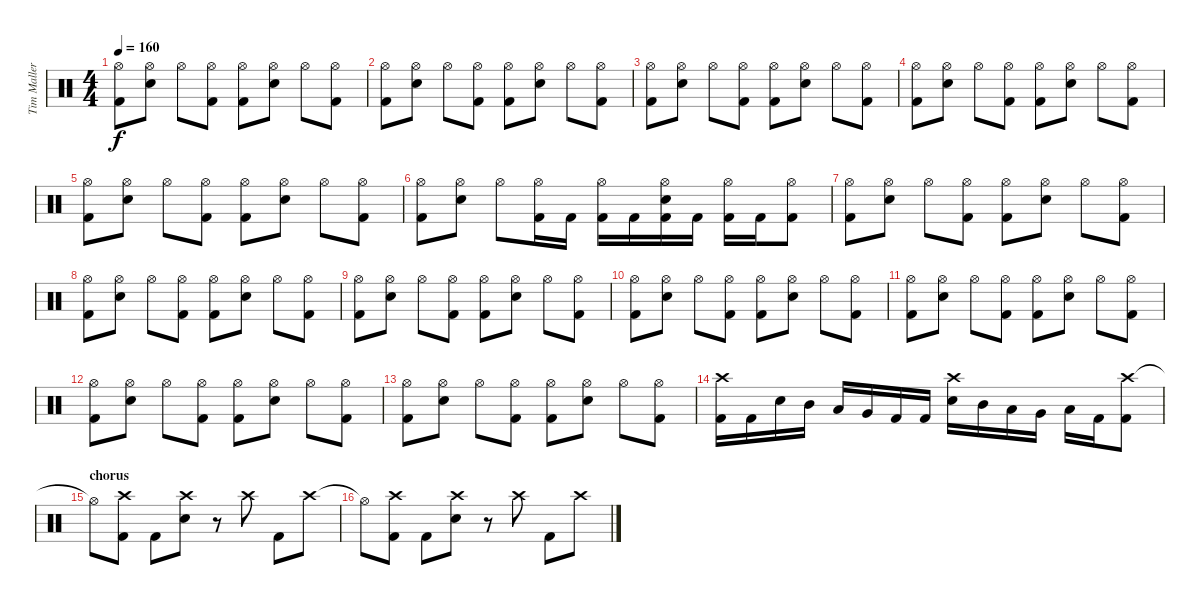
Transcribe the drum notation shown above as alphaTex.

\track ("Tim Mallere" "Tim Maller") {instrument percussion}
\staff {score}
\articulation defaults
\ts (4 4)
\tempo 160
\clef neutral
\ks c
("Hi-Hat (open)" "Kick (hit) 2").8{dy f} ("Hi-Hat (open)" "Electric Snare (hit)").8 "Hi-Hat (open)".8 ("Hi-Hat (open)" "Kick (hit) 2").8 ("Hi-Hat (open)" "Kick (hit) 2").8 ("Hi-Hat (open)" "Electric Snare (hit)").8 "Hi-Hat (open)".8 ("Hi-Hat (open)" "Kick (hit) 2").8 |
("Hi-Hat (open)" "Kick (hit) 2").8 ("Hi-Hat (open)" "Electric Snare (hit)").8 "Hi-Hat (open)".8 ("Hi-Hat (open)" "Kick (hit) 2").8 ("Hi-Hat (open)" "Kick (hit) 2").8 ("Hi-Hat (open)" "Electric Snare (hit)").8 "Hi-Hat (open)".8 ("Hi-Hat (open)" "Kick (hit) 2").8 |
("Hi-Hat (open)" "Kick (hit) 2").8 ("Hi-Hat (open)" "Electric Snare (hit)").8 "Hi-Hat (open)".8 ("Hi-Hat (open)" "Kick (hit) 2").8 ("Hi-Hat (open)" "Kick (hit) 2").8 ("Hi-Hat (open)" "Electric Snare (hit)").8 "Hi-Hat (open)".8 ("Hi-Hat (open)" "Kick (hit) 2").8 |
("Hi-Hat (open)" "Kick (hit) 2").8 ("Hi-Hat (open)" "Electric Snare (hit)").8 "Hi-Hat (open)".8 ("Hi-Hat (open)" "Kick (hit) 2").8 ("Hi-Hat (open)" "Kick (hit) 2").8 ("Hi-Hat (open)" "Electric Snare (hit)").8 "Hi-Hat (open)".8 ("Hi-Hat (open)" "Kick (hit) 2").8 |
("Hi-Hat (open)" "Kick (hit) 2").8 ("Hi-Hat (open)" "Electric Snare (hit)").8 "Hi-Hat (open)".8 ("Hi-Hat (open)" "Kick (hit) 2").8 ("Hi-Hat (open)" "Kick (hit) 2").8 ("Hi-Hat (open)" "Electric Snare (hit)").8 "Hi-Hat (open)".8 ("Hi-Hat (open)" "Kick (hit) 2").8 |
("Hi-Hat (open)" "Kick (hit) 2").8 ("Hi-Hat (open)" "Electric Snare (hit)").8 "Hi-Hat (open)".8 ("Hi-Hat (open)" "Kick (hit) 2").16 "Kick (hit) 2".16 ("Hi-Hat (open)" "Kick (hit) 2").16 "Kick (hit) 2".16 ("Hi-Hat (open)" "Electric Snare (hit)" "Kick (hit) 2").16 "Kick (hit) 2".16 ("Hi-Hat (open)" "Kick (hit) 2").16 "Kick (hit) 2".16 ("Hi-Hat (open)" "Kick (hit) 2").8 |
("Hi-Hat (open)" "Kick (hit) 2").8 ("Hi-Hat (open)" "Electric Snare (hit)").8 "Hi-Hat (open)".8 ("Hi-Hat (open)" "Kick (hit) 2").8 ("Hi-Hat (open)" "Kick (hit) 2").8 ("Hi-Hat (open)" "Electric Snare (hit)").8 "Hi-Hat (open)".8 ("Hi-Hat (open)" "Kick (hit) 2").8 |
("Hi-Hat (open)" "Kick (hit) 2").8 ("Hi-Hat (open)" "Electric Snare (hit)").8 "Hi-Hat (open)".8 ("Hi-Hat (open)" "Kick (hit) 2").8 ("Hi-Hat (open)" "Kick (hit) 2").8 ("Hi-Hat (open)" "Electric Snare (hit)").8 "Hi-Hat (open)".8 ("Hi-Hat (open)" "Kick (hit) 2").8 |
("Hi-Hat (open)" "Kick (hit) 2").8 ("Hi-Hat (open)" "Electric Snare (hit)").8 "Hi-Hat (open)".8 ("Hi-Hat (open)" "Kick (hit) 2").8 ("Hi-Hat (open)" "Kick (hit) 2").8 ("Hi-Hat (open)" "Electric Snare (hit)").8 "Hi-Hat (open)".8 ("Hi-Hat (open)" "Kick (hit) 2").8 |
("Hi-Hat (open)" "Kick (hit) 2").8 ("Hi-Hat (open)" "Electric Snare (hit)").8 "Hi-Hat (open)".8 ("Hi-Hat (open)" "Kick (hit) 2").8 ("Hi-Hat (open)" "Kick (hit) 2").8 ("Hi-Hat (open)" "Electric Snare (hit)").8 "Hi-Hat (open)".8 ("Hi-Hat (open)" "Kick (hit) 2").8 |
("Hi-Hat (open)" "Kick (hit) 2").8 ("Hi-Hat (open)" "Electric Snare (hit)").8 "Hi-Hat (open)".8 ("Hi-Hat (open)" "Kick (hit) 2").8 ("Hi-Hat (open)" "Kick (hit) 2").8 ("Hi-Hat (open)" "Electric Snare (hit)").8 "Hi-Hat (open)".8 ("Hi-Hat (open)" "Kick (hit) 2").8 |
("Hi-Hat (open)" "Kick (hit) 2").8 ("Hi-Hat (open)" "Electric Snare (hit)").8 "Hi-Hat (open)".8 ("Hi-Hat (open)" "Kick (hit) 2").8 ("Hi-Hat (open)" "Kick (hit) 2").8 ("Hi-Hat (open)" "Electric Snare (hit)").8 "Hi-Hat (open)".8 ("Hi-Hat (open)" "Kick (hit) 2").8 |
("Hi-Hat (open)" "Kick (hit) 2").8 ("Hi-Hat (open)" "Electric Snare (hit)").8 "Hi-Hat (open)".8 ("Hi-Hat (open)" "Kick (hit) 2").8 ("Hi-Hat (open)" "Kick (hit) 2").8 ("Hi-Hat (open)" "Electric Snare (hit)").8 "Hi-Hat (open)".8 ("Hi-Hat (open)" "Kick (hit) 2").8 |
("Crash high (hit)" "Kick (hit) 2").16 "Kick (hit) 2".16 "Electric Snare (hit)".16 "Mid Tom (hit)".16 "Low Tom (hit)".16 "Very Low Tom (hit)".16 "Kick (hit) 2".16 "Kick (hit) 2".16 ("Crash high (hit)" "Electric Snare (hit)").16 "Mid Tom (hit)".16 "Low Tom (hit)".16 "Very Low Tom (hit)".16 "Low Floor Tom (hit)".16 "Kick (hit) 2".16 ("Crash high (hit)" "Kick (hit) 2").8 |
\section ("" "chorus")
"Hi-Hat (open)"{t}.8 ("Crash high (hit)" "Kick (hit) 2").8 "Kick (hit) 2".8 ("Crash high (hit)" "Electric Snare (hit)").8 r.8 "Crash high (hit)".8 "Kick (hit) 2".8 "Crash high (hit)".8 |
"Hi-Hat (open)"{t}.8 ("Crash high (hit)" "Kick (hit) 2").8 "Kick (hit) 2".8 ("Crash high (hit)" "Electric Snare (hit)").8 r.8 "Crash high (hit)".8 "Kick (hit) 2".8 "Crash high (hit)".8
